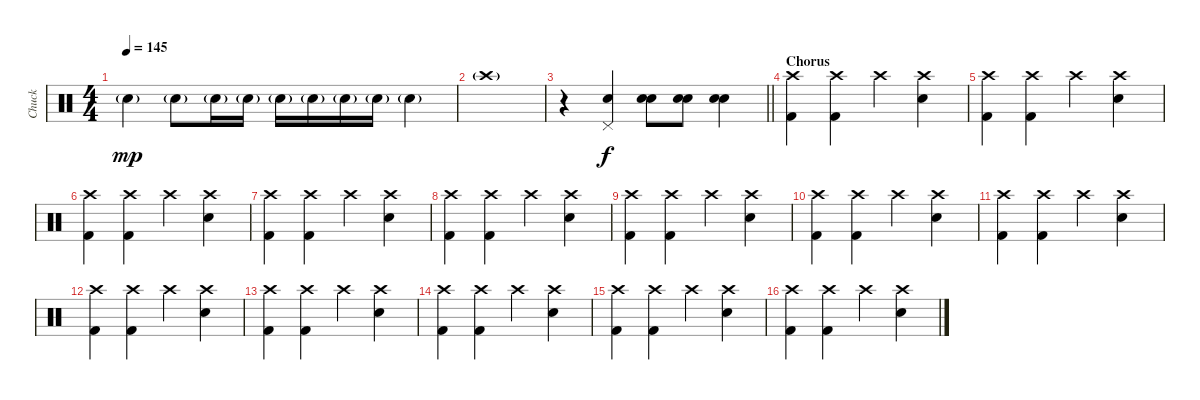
\track ("Chuck" "Chuck") {instrument percussion}
\staff {score}
\articulation defaults
\ts (4 4)
\tempo 145
\clef neutral
\ks c "Snare (hit) 2"{g}.4{dy mp} "Snare (hit) 2"{g}.8 "Snare (hit) 2"{g}.16 "Snare (hit) 2"{g}.16 "Snare (hit) 2"{g}.16 "Snare (hit) 2"{g}.16 "Snare (hit) 2"{g}.16 "Snare (hit) 2"{g}.16 "Snare (hit) 2"{g}.4
|
"Crash high (hit)"{g}.1 |
\barLineRight lightlight
r.4 ("Pedal Hi-Hat (hit)" "Electric Snare (hit)").4{dy f} ("Electric Snare (hit)" "Electric Snare (hit)").8 ("Electric Snare (hit)" "Electric Snare (hit)").8 ("Electric Snare (hit)" "Electric Snare (hit)").4 |
\section ("" "Chorus")
("Crash high (hit)" "Kick (hit) 2").4 ("Crash high (hit)" "Kick (hit) 2").4 "Crash high (hit)".4 ("Crash high (hit)" "Snare (hit) 2").4 |
("Crash high (hit)" "Kick (hit) 2").4 ("Crash high (hit)" "Kick (hit) 2").4 "Crash high (hit)".4 ("Crash high (hit)" "Snare (hit) 2").4 |
("Crash high (hit)" "Kick (hit) 2").4 ("Crash high (hit)" "Kick (hit) 2").4 "Crash high (hit)".4 ("Crash high (hit)" "Snare (hit) 2").4 |
("Crash high (hit)" "Kick (hit) 2").4 ("Crash high (hit)" "Kick (hit) 2").4 "Crash high (hit)".4 ("Crash high (hit)" "Snare (hit) 2").4 |
("Crash high (hit)" "Kick (hit) 2").4 ("Crash high (hit)" "Kick (hit) 2").4 "Crash high (hit)".4 ("Crash high (hit)" "Snare (hit) 2").4 |
("Crash high (hit)" "Kick (hit) 2").4 ("Crash high (hit)" "Kick (hit) 2").4 "Crash high (hit)".4 ("Crash high (hit)" "Snare (hit) 2").4 |
("Crash high (hit)" "Kick (hit) 2").4 ("Crash high (hit)" "Kick (hit) 2").4 "Crash high (hit)".4 ("Crash high (hit)" "Snare (hit) 2").4 |
("Crash high (hit)" "Kick (hit) 2").4 ("Crash high (hit)" "Kick (hit) 2").4 "Crash high (hit)".4 ("Crash high (hit)" "Snare (hit) 2").4 |
("Crash high (hit)" "Kick (hit) 2").4 ("Crash high (hit)" "Kick (hit) 2").4 "Crash high (hit)".4 ("Crash high (hit)" "Snare (hit) 2").4 |
("Crash high (hit)" "Kick (hit) 2").4 ("Crash high (hit)" "Kick (hit) 2").4 "Crash high (hit)".4 ("Crash high (hit)" "Snare (hit) 2").4 |
("Crash high (hit)" "Kick (hit) 2").4 ("Crash high (hit)" "Kick (hit) 2").4 "Crash high (hit)".4 ("Crash high (hit)" "Snare (hit) 2").4 |
("Crash high (hit)" "Kick (hit) 2").4 ("Crash high (hit)" "Kick (hit) 2").4 "Crash high (hit)".4 ("Crash high (hit)" "Snare (hit) 2").4 |
("Crash high (hit)" "Kick (hit) 2").4 ("Crash high (hit)" "Kick (hit) 2").4 "Crash high (hit)".4 ("Crash high (hit)" "Snare (hit) 2").4
